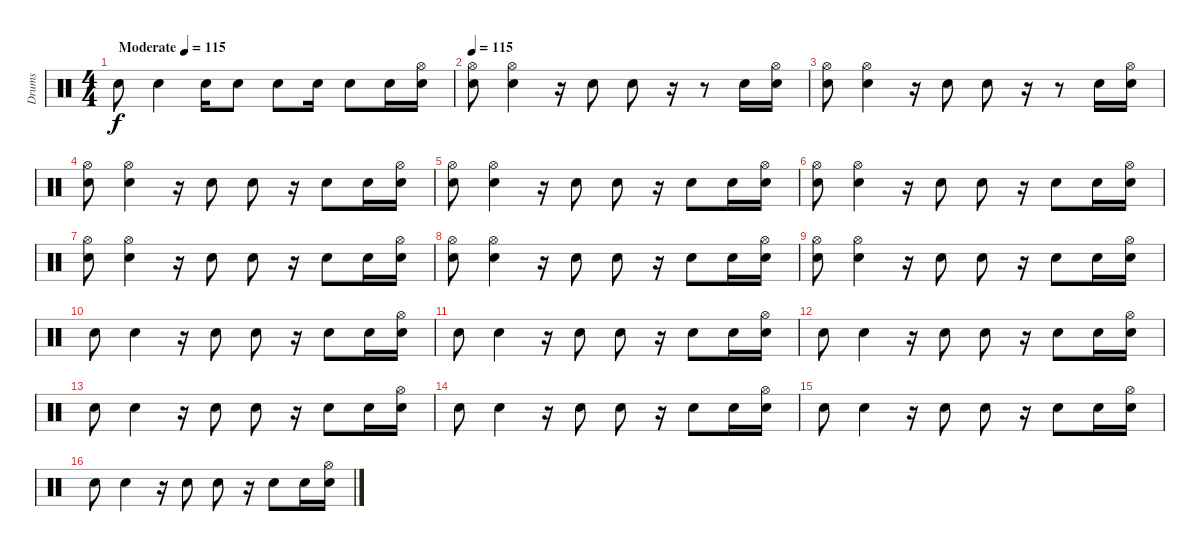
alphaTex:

\track ("Drums" "Drums") {instrument percussion}
\staff {score}
\articulation defaults
\ts (4 4)
\tempo (115 "Moderate")
\tempo 130
\tempo (115 "Moderate")
\clef neutral
\ks c "Snare (hit) 2".8{dy f} "Snare (hit) 2".4 "Snare (hit) 2".16 "Snare (hit) 2".8 "Snare (hit) 2".8 "Snare (hit) 2".16 "Snare (hit) 2".8 "Snare (hit) 2".16
("Snare (hit) 2" "Hi-Hat (open)").16 |
\tempo 115
("Snare (hit) 2" "Hi-Hat (open)").8 ("Snare (hit) 2" "Hi-Hat (open)").4 r.16 "Snare (hit) 2".8 "Snare (hit) 2".8 r.16 r.8 "Snare (hit) 2".16 ("Snare (hit) 2" "Hi-Hat (open)").16 |
("Snare (hit) 2" "Hi-Hat (open)").8 ("Snare (hit) 2" "Hi-Hat (open)").4 r.16 "Snare (hit) 2".8 "Snare (hit) 2".8 r.16 r.8 "Snare (hit) 2".16 ("Snare (hit) 2" "Hi-Hat (open)").16 |
("Snare (hit) 2" "Hi-Hat (open)").8 ("Snare (hit) 2" "Hi-Hat (open)").4 r.16 "Snare (hit) 2".8 "Snare (hit) 2".8 r.16 "Snare (hit) 2".8 "Snare (hit) 2".16 ("Snare (hit) 2" "Hi-Hat (open)").16 |
("Snare (hit) 2" "Hi-Hat (open)").8 ("Snare (hit) 2" "Hi-Hat (open)").4 r.16 "Snare (hit) 2".8 "Snare (hit) 2".8 r.16 "Snare (hit) 2".8 "Snare (hit) 2".16 ("Snare (hit) 2" "Hi-Hat (open)").16 |
("Snare (hit) 2" "Hi-Hat (open)").8 ("Snare (hit) 2" "Hi-Hat (open)").4 r.16 "Snare (hit) 2".8 "Snare (hit) 2".8 r.16 "Snare (hit) 2".8 "Snare (hit) 2".16 ("Snare (hit) 2" "Hi-Hat (open)").16 |
("Snare (hit) 2" "Hi-Hat (open)").8 ("Snare (hit) 2" "Hi-Hat (open)").4 r.16 "Snare (hit) 2".8 "Snare (hit) 2".8 r.16 "Snare (hit) 2".8 "Snare (hit) 2".16 ("Snare (hit) 2" "Hi-Hat (open)").16 |
("Snare (hit) 2" "Hi-Hat (open)").8 ("Snare (hit) 2" "Hi-Hat (open)").4 r.16 "Snare (hit) 2".8 "Snare (hit) 2".8 r.16 "Snare (hit) 2".8 "Snare (hit) 2".16 ("Snare (hit) 2" "Hi-Hat (open)").16 |
("Snare (hit) 2" "Hi-Hat (open)").8 ("Snare (hit) 2" "Hi-Hat (open)").4 r.16 "Snare (hit) 2".8 "Snare (hit) 2".8 r.16 "Snare (hit) 2".8 "Snare (hit) 2".16 ("Snare (hit) 2" "Hi-Hat (open)").16 |
"Snare (hit) 2".8 "Snare (hit) 2".4 r.16 "Snare (hit) 2".8 "Snare (hit) 2".8 r.16 "Snare (hit) 2".8 "Snare (hit) 2".16 ("Snare (hit) 2" "Hi-Hat (open)").16 |
"Snare (hit) 2".8 "Snare (hit) 2".4 r.16 "Snare (hit) 2".8 "Snare (hit) 2".8 r.16 "Snare (hit) 2".8 "Snare (hit) 2".16 ("Snare (hit) 2" "Hi-Hat (open)").16 |
"Snare (hit) 2".8 "Snare (hit) 2".4 r.16 "Snare (hit) 2".8 "Snare (hit) 2".8 r.16 "Snare (hit) 2".8 "Snare (hit) 2".16 ("Snare (hit) 2" "Hi-Hat (open)").16 |
"Snare (hit) 2".8 "Snare (hit) 2".4 r.16 "Snare (hit) 2".8 "Snare (hit) 2".8 r.16 "Snare (hit) 2".8 "Snare (hit) 2".16 ("Snare (hit) 2" "Hi-Hat (open)").16 |
"Snare (hit) 2".8 "Snare (hit) 2".4 r.16 "Snare (hit) 2".8 "Snare (hit) 2".8 r.16 "Snare (hit) 2".8 "Snare (hit) 2".16 ("Snare (hit) 2" "Hi-Hat (open)").16 |
"Snare (hit) 2".8 "Snare (hit) 2".4 r.16 "Snare (hit) 2".8 "Snare (hit) 2".8 r.16 "Snare (hit) 2".8 "Snare (hit) 2".16 ("Snare (hit) 2" "Hi-Hat (open)").16 |
"Snare (hit) 2".8 "Snare (hit) 2".4 r.16 "Snare (hit) 2".8 "Snare (hit) 2".8 r.16 "Snare (hit) 2".8 "Snare (hit) 2".16 ("Snare (hit) 2" "Hi-Hat (open)").16
